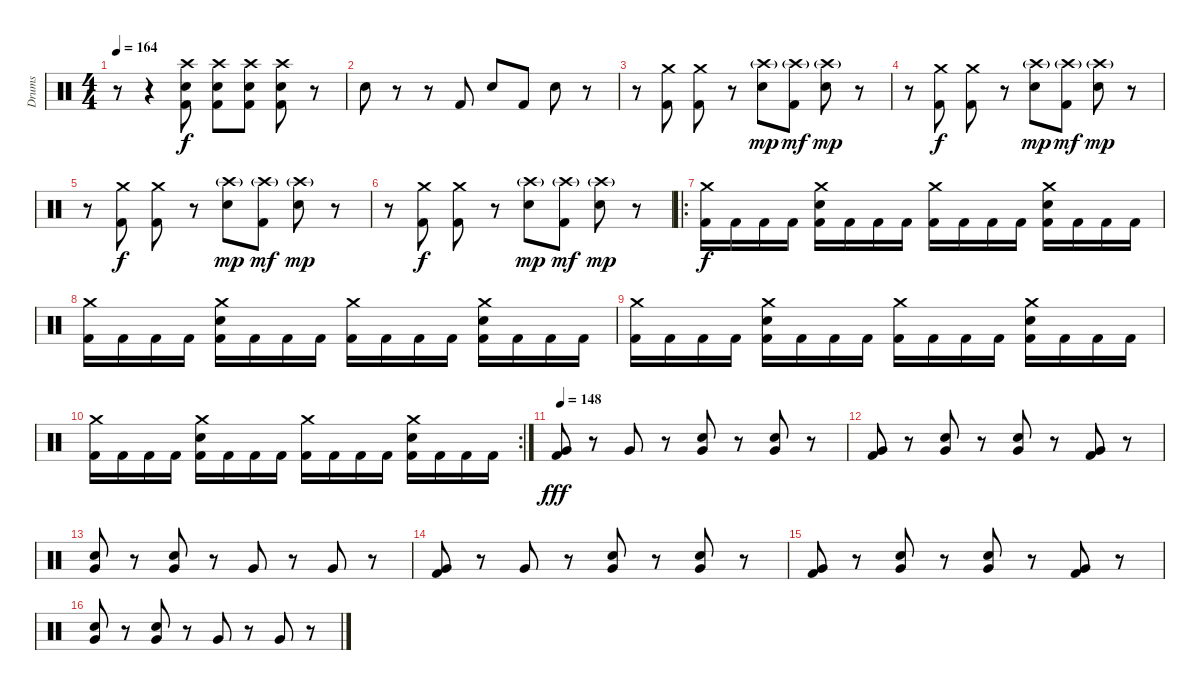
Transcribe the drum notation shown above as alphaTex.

\track ("Drums" "Drums") {instrument percussion}
\staff {score}
\articulation defaults
\ts (4 4)
\tempo 164
\clef neutral
\ks c
r.8{dy f} r.4 ("Crash high (hit)" "Snare (hit) 2" "Kick (hit) 2").8 ("Crash high (hit)" "Snare (hit) 2" "Kick (hit) 2").8 ("Crash high (hit)" "Snare (hit) 2" "Kick (hit) 2").8 ("Crash high (hit)" "Snare (hit) 2" "Kick (hit) 2").8 r.8 |
"Snare (hit) 2".8 r.8 r.8 "Kick (hit) 2".8 "Snare (hit) 2".8 "Kick (hit) 2".8 "Snare (hit) 2".8 r.8 |
r.8 ("Crash medium (hit)" "Kick (hit) 2").8 ("Crash medium (hit)" "Kick (hit) 2").8 r.8 ("Crash high (hit)"{g} "Snare (hit) 2").8{dy mp} ("Crash high (hit)"{g} "Kick (hit) 2").8{dy mf} ("Crash high (hit)"{g} "Snare (hit) 2").8{dy mp} r.8 |
r.8 ("Crash medium (hit)" "Kick (hit) 2").8{dy f} ("Crash medium (hit)" "Kick (hit) 2").8 r.8 ("Crash high (hit)"{g} "Snare (hit) 2").8{dy mp} ("Crash high (hit)"{g} "Kick (hit) 2").8{dy mf} ("Crash high (hit)"{g} "Snare (hit) 2").8{dy mp} r.8 |
r.8 ("Crash medium (hit)" "Kick (hit) 2").8{dy f} ("Crash medium (hit)" "Kick (hit) 2").8 r.8 ("Crash high (hit)"{g} "Snare (hit) 2").8{dy mp} ("Crash high (hit)"{g} "Kick (hit) 2").8{dy mf} ("Crash high (hit)"{g} "Snare (hit) 2").8{dy mp} r.8 |
r.8 ("Crash medium (hit)" "Kick (hit) 2").8{dy f} ("Crash medium (hit)" "Kick (hit) 2").8 r.8 ("Crash high (hit)"{g} "Snare (hit) 2").8{dy mp} ("Crash high (hit)"{g} "Kick (hit) 2").8{dy mf} ("Crash high (hit)"{g} "Snare (hit) 2").8{dy mp} r.8 |
\ro
("Crash medium (hit)" "Kick (hit) 2").16{dy f} "Kick (hit) 2".16 "Kick (hit) 2".16 "Kick (hit) 2".16 ("Crash medium (hit)" "Snare (hit) 2" "Kick (hit) 2").16 "Kick (hit) 2".16 "Kick (hit) 2".16 "Kick (hit) 2".16 ("Crash medium (hit)" "Kick (hit) 2").16 "Kick (hit) 2".16 "Kick (hit) 2".16 "Kick (hit) 2".16 ("Crash medium (hit)" "Snare (hit) 2" "Kick (hit) 2").16 "Kick (hit) 2".16 "Kick (hit) 2".16 "Kick (hit) 2".16 |
("Crash medium (hit)" "Kick (hit) 2").16 "Kick (hit) 2".16 "Kick (hit) 2".16 "Kick (hit) 2".16 ("Crash medium (hit)" "Snare (hit) 2" "Kick (hit) 2").16 "Kick (hit) 2".16 "Kick (hit) 2".16 "Kick (hit) 2".16 ("Crash medium (hit)" "Kick (hit) 2").16 "Kick (hit) 2".16 "Kick (hit) 2".16 "Kick (hit) 2".16 ("Crash medium (hit)" "Snare (hit) 2" "Kick (hit) 2").16 "Kick (hit) 2".16 "Kick (hit) 2".16 "Kick (hit) 2".16 |
("Crash medium (hit)" "Kick (hit) 2").16 "Kick (hit) 2".16 "Kick (hit) 2".16 "Kick (hit) 2".16 ("Crash medium (hit)" "Snare (hit) 2" "Kick (hit) 2").16 "Kick (hit) 2".16 "Kick (hit) 2".16 "Kick (hit) 2".16 ("Crash medium (hit)" "Kick (hit) 2").16 "Kick (hit) 2".16 "Kick (hit) 2".16 "Kick (hit) 2".16 ("Crash medium (hit)" "Snare (hit) 2" "Kick (hit) 2").16 "Kick (hit) 2".16 "Kick (hit) 2".16 "Kick (hit) 2".16 |
\rc 2
("Crash medium (hit)" "Kick (hit) 2").16 "Kick (hit) 2".16 "Kick (hit) 2".16 "Kick (hit) 2".16 ("Crash medium (hit)" "Snare (hit) 2" "Kick (hit) 2").16 "Kick (hit) 2".16 "Kick (hit) 2".16 "Kick (hit) 2".16 ("Crash medium (hit)" "Kick (hit) 2").16 "Kick (hit) 2".16 "Kick (hit) 2".16 "Kick (hit) 2".16 ("Crash medium (hit)" "Snare (hit) 2" "Kick (hit) 2").16 "Kick (hit) 2".16 "Kick (hit) 2".16 "Kick (hit) 2".16 |
\tempo 148
("Very Low Tom (hit)" "Kick (hit) 2").8{dy fff} r.8 "Very Low Tom (hit)".8 r.8 ("Very Low Tom (hit)" "Snare (hit) 2").8 r.8 ("Very Low Tom (hit)" "Snare (hit) 2").8 r.8 |
("Very Low Tom (hit)" "Kick (hit) 2").8 r.8 ("Very Low Tom (hit)" "Snare (hit) 2").8 r.8 ("Very Low Tom (hit)" "Snare (hit) 2").8 r.8 ("Very Low Tom (hit)" "Kick (hit) 2").8 r.8 |
("Very Low Tom (hit)" "Snare (hit) 2").8 r.8 ("Very Low Tom (hit)" "Snare (hit) 2").8 r.8 "Very Low Tom (hit)".8 r.8 "Very Low Tom (hit)".8 r.8 |
("Very Low Tom (hit)" "Kick (hit) 2").8 r.8 "Very Low Tom (hit)".8 r.8 ("Very Low Tom (hit)" "Snare (hit) 2").8 r.8 ("Very Low Tom (hit)" "Snare (hit) 2").8 r.8 |
("Very Low Tom (hit)" "Kick (hit) 2").8 r.8 ("Very Low Tom (hit)" "Snare (hit) 2").8 r.8 ("Very Low Tom (hit)" "Snare (hit) 2").8 r.8 ("Very Low Tom (hit)" "Kick (hit) 2").8 r.8 |
("Very Low Tom (hit)" "Snare (hit) 2").8 r.8 ("Very Low Tom (hit)" "Snare (hit) 2").8 r.8 "Very Low Tom (hit)".8 r.8 "Very Low Tom (hit)".8 r.8
